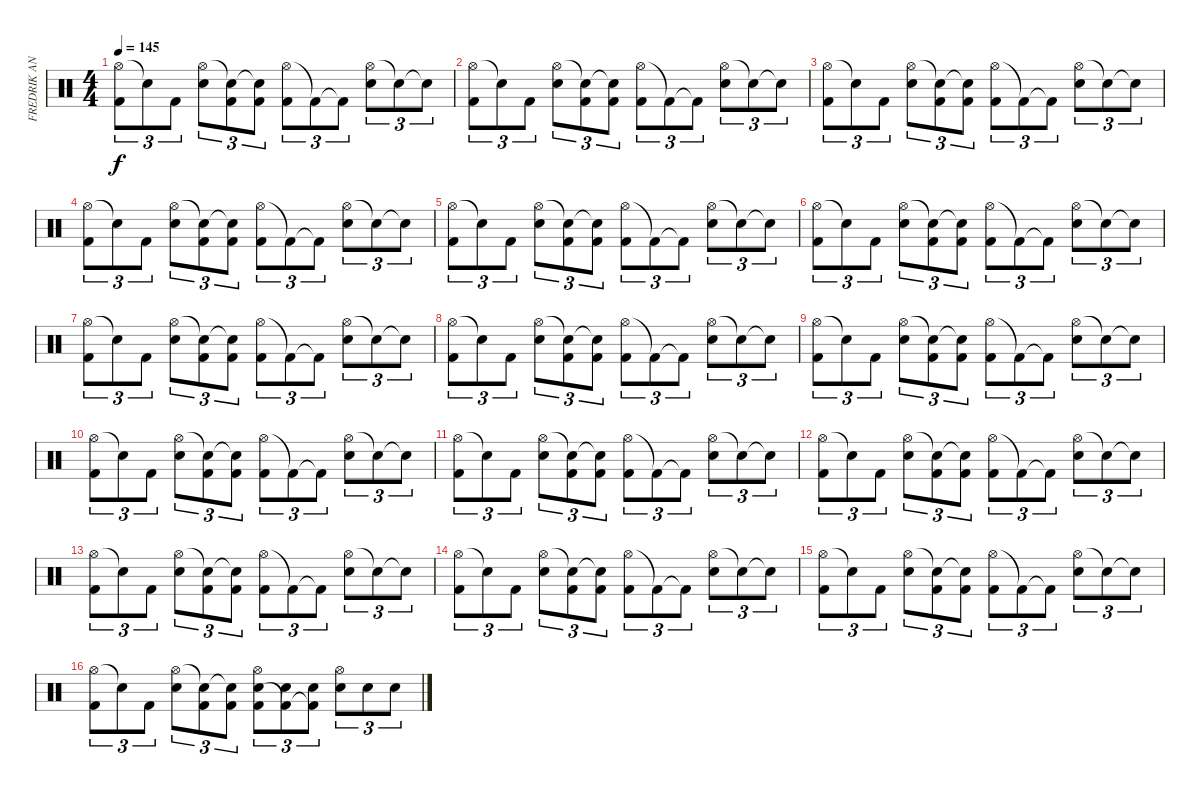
\track ("FREDRIK ANDERSSON" "FREDRIK AN") {instrument percussion}
\staff {score}
\articulation defaults
\ts (4 4)
\tempo 145
\clef neutral
\ks c
("Hi-Hat (open)" "Kick (hit) 2").8{tu (3 2) dy f} "Snare (hit)"{t}.8{tu (3 2)} "Kick (hit) 2".8{tu (3 2)} ("Hi-Hat (open)" "Snare (hit) 2").8{tu (3 2)} ("Snare (hit)"{t} "Kick (hit) 2").8{tu (3 2)} ("Snare (hit)"{t} "Kick (hit) 2").8{tu (3 2)} ("Hi-Hat (open)" "Kick (hit) 2").8{tu (3 2)} "Kick (hit) 2"{t}.8{tu (3 2)} "Kick (hit) 2"{t}.8{tu (3 2)} ("Hi-Hat (open)" "Snare (hit) 2").8{tu (3 2)} "Snare (hit)"{t}.8{tu (3 2)} "Snare (hit)"{t}.8{tu (3 2)} |
("Hi-Hat (open)" "Kick (hit) 2").8{tu (3 2)} "Snare (hit)"{t}.8{tu (3 2)} "Kick (hit) 2".8{tu (3 2)} ("Hi-Hat (open)" "Snare (hit) 2").8{tu (3 2)} ("Snare (hit)"{t} "Kick (hit) 2").8{tu (3 2)} ("Snare (hit)"{t} "Kick (hit) 2").8{tu (3 2)} ("Hi-Hat (open)" "Kick (hit) 2").8{tu (3 2)} "Kick (hit) 2"{t}.8{tu (3 2)} "Kick (hit) 2"{t}.8{tu (3 2)} ("Hi-Hat (open)" "Snare (hit) 2").8{tu (3 2)} "Snare (hit)"{t}.8{tu (3 2)} "Snare (hit)"{t}.8{tu (3 2)} |
("Hi-Hat (open)" "Kick (hit) 2").8{tu (3 2)} "Snare (hit)"{t}.8{tu (3 2)} "Kick (hit) 2".8{tu (3 2)} ("Hi-Hat (open)" "Snare (hit) 2").8{tu (3 2)} ("Snare (hit)"{t} "Kick (hit) 2").8{tu (3 2)} ("Snare (hit)"{t} "Kick (hit) 2").8{tu (3 2)} ("Hi-Hat (open)" "Kick (hit) 2").8{tu (3 2)} "Kick (hit) 2"{t}.8{tu (3 2)} "Kick (hit) 2"{t}.8{tu (3 2)} ("Hi-Hat (open)" "Snare (hit) 2").8{tu (3 2)} "Snare (hit)"{t}.8{tu (3 2)} "Snare (hit)"{t}.8{tu (3 2)} |
("Hi-Hat (open)" "Kick (hit) 2").8{tu (3 2)} "Snare (hit)"{t}.8{tu (3 2)} "Kick (hit) 2".8{tu (3 2)} ("Hi-Hat (open)" "Snare (hit) 2").8{tu (3 2)} ("Snare (hit)"{t} "Kick (hit) 2").8{tu (3 2)} ("Snare (hit)"{t} "Kick (hit) 2").8{tu (3 2)} ("Hi-Hat (open)" "Kick (hit) 2").8{tu (3 2)} "Kick (hit) 2"{t}.8{tu (3 2)} "Kick (hit) 2"{t}.8{tu (3 2)} ("Hi-Hat (open)" "Snare (hit) 2").8{tu (3 2)} "Snare (hit)"{t}.8{tu (3 2)} "Snare (hit)"{t}.8{tu (3 2)} |
("Hi-Hat (open)" "Kick (hit) 2").8{tu (3 2)} "Snare (hit)"{t}.8{tu (3 2)} "Kick (hit) 2".8{tu (3 2)} ("Hi-Hat (open)" "Snare (hit) 2").8{tu (3 2)} ("Snare (hit)"{t} "Kick (hit) 2").8{tu (3 2)} ("Snare (hit)"{t} "Kick (hit) 2").8{tu (3 2)} ("Hi-Hat (open)" "Kick (hit) 2").8{tu (3 2)} "Kick (hit) 2"{t}.8{tu (3 2)} "Kick (hit) 2"{t}.8{tu (3 2)} ("Hi-Hat (open)" "Snare (hit) 2").8{tu (3 2)} "Snare (hit)"{t}.8{tu (3 2)} "Snare (hit)"{t}.8{tu (3 2)} |
("Hi-Hat (open)" "Kick (hit) 2").8{tu (3 2)} "Snare (hit)"{t}.8{tu (3 2)} "Kick (hit) 2".8{tu (3 2)} ("Hi-Hat (open)" "Snare (hit) 2").8{tu (3 2)} ("Snare (hit)"{t} "Kick (hit) 2").8{tu (3 2)} ("Snare (hit)"{t} "Kick (hit) 2").8{tu (3 2)} ("Hi-Hat (open)" "Kick (hit) 2").8{tu (3 2)} "Kick (hit) 2"{t}.8{tu (3 2)} "Kick (hit) 2"{t}.8{tu (3 2)} ("Hi-Hat (open)" "Snare (hit) 2").8{tu (3 2)} "Snare (hit)"{t}.8{tu (3 2)} "Snare (hit)"{t}.8{tu (3 2)} |
("Hi-Hat (open)" "Kick (hit) 2").8{tu (3 2)} "Snare (hit)"{t}.8{tu (3 2)} "Kick (hit) 2".8{tu (3 2)} ("Hi-Hat (open)" "Snare (hit) 2").8{tu (3 2)} ("Snare (hit)"{t} "Kick (hit) 2").8{tu (3 2)} ("Snare (hit)"{t} "Kick (hit) 2").8{tu (3 2)} ("Hi-Hat (open)" "Kick (hit) 2").8{tu (3 2)} "Kick (hit) 2"{t}.8{tu (3 2)} "Kick (hit) 2"{t}.8{tu (3 2)} ("Hi-Hat (open)" "Snare (hit) 2").8{tu (3 2)} "Snare (hit)"{t}.8{tu (3 2)} "Snare (hit)"{t}.8{tu (3 2)} |
("Hi-Hat (open)" "Kick (hit) 2").8{tu (3 2)} "Snare (hit)"{t}.8{tu (3 2)} "Kick (hit) 2".8{tu (3 2)} ("Hi-Hat (open)" "Snare (hit) 2").8{tu (3 2)} ("Snare (hit)"{t} "Kick (hit) 2").8{tu (3 2)} ("Snare (hit)"{t} "Kick (hit) 2").8{tu (3 2)} ("Hi-Hat (open)" "Kick (hit) 2").8{tu (3 2)} "Kick (hit) 2"{t}.8{tu (3 2)} "Kick (hit) 2"{t}.8{tu (3 2)} ("Hi-Hat (open)" "Snare (hit) 2").8{tu (3 2)} "Snare (hit)"{t}.8{tu (3 2)} "Snare (hit)"{t}.8{tu (3 2)} |
("Hi-Hat (open)" "Kick (hit) 2").8{tu (3 2)} "Snare (hit)"{t}.8{tu (3 2)} "Kick (hit) 2".8{tu (3 2)} ("Hi-Hat (open)" "Snare (hit) 2").8{tu (3 2)} ("Snare (hit)"{t} "Kick (hit) 2").8{tu (3 2)} ("Snare (hit)"{t} "Kick (hit) 2").8{tu (3 2)} ("Hi-Hat (open)" "Kick (hit) 2").8{tu (3 2)} "Kick (hit) 2"{t}.8{tu (3 2)} "Kick (hit) 2"{t}.8{tu (3 2)} ("Hi-Hat (open)" "Snare (hit) 2").8{tu (3 2)} "Snare (hit)"{t}.8{tu (3 2)} "Snare (hit)"{t}.8{tu (3 2)} |
("Hi-Hat (open)" "Kick (hit) 2").8{tu (3 2)} "Snare (hit)"{t}.8{tu (3 2)} "Kick (hit) 2".8{tu (3 2)} ("Hi-Hat (open)" "Snare (hit) 2").8{tu (3 2)} ("Snare (hit)"{t} "Kick (hit) 2").8{tu (3 2)} ("Snare (hit)"{t} "Kick (hit) 2").8{tu (3 2)} ("Hi-Hat (open)" "Kick (hit) 2").8{tu (3 2)} "Kick (hit) 2"{t}.8{tu (3 2)} "Kick (hit) 2"{t}.8{tu (3 2)} ("Hi-Hat (open)" "Snare (hit) 2").8{tu (3 2)} "Snare (hit)"{t}.8{tu (3 2)} "Snare (hit)"{t}.8{tu (3 2)} |
("Hi-Hat (open)" "Kick (hit) 2").8{tu (3 2)} "Snare (hit)"{t}.8{tu (3 2)} "Kick (hit) 2".8{tu (3 2)} ("Hi-Hat (open)" "Snare (hit) 2").8{tu (3 2)} ("Snare (hit)"{t} "Kick (hit) 2").8{tu (3 2)} ("Snare (hit)"{t} "Kick (hit) 2").8{tu (3 2)} ("Hi-Hat (open)" "Kick (hit) 2").8{tu (3 2)} "Kick (hit) 2"{t}.8{tu (3 2)} "Kick (hit) 2"{t}.8{tu (3 2)} ("Hi-Hat (open)" "Snare (hit) 2").8{tu (3 2)} "Snare (hit)"{t}.8{tu (3 2)} "Snare (hit)"{t}.8{tu (3 2)} |
("Hi-Hat (open)" "Kick (hit) 2").8{tu (3 2)} "Snare (hit)"{t}.8{tu (3 2)} "Kick (hit) 2".8{tu (3 2)} ("Hi-Hat (open)" "Snare (hit) 2").8{tu (3 2)} ("Snare (hit)"{t} "Kick (hit) 2").8{tu (3 2)} ("Snare (hit)"{t} "Kick (hit) 2").8{tu (3 2)} ("Hi-Hat (open)" "Kick (hit) 2").8{tu (3 2)} "Kick (hit) 2"{t}.8{tu (3 2)} "Kick (hit) 2"{t}.8{tu (3 2)} ("Hi-Hat (open)" "Snare (hit) 2").8{tu (3 2)} "Snare (hit)"{t}.8{tu (3 2)} "Snare (hit)"{t}.8{tu (3 2)} |
("Hi-Hat (open)" "Kick (hit) 2").8{tu (3 2)} "Snare (hit)"{t}.8{tu (3 2)} "Kick (hit) 2".8{tu (3 2)} ("Hi-Hat (open)" "Snare (hit) 2").8{tu (3 2)} ("Snare (hit)"{t} "Kick (hit) 2").8{tu (3 2)} ("Snare (hit)"{t} "Kick (hit) 2").8{tu (3 2)} ("Hi-Hat (open)" "Kick (hit) 2").8{tu (3 2)} "Kick (hit) 2"{t}.8{tu (3 2)} "Kick (hit) 2"{t}.8{tu (3 2)} ("Hi-Hat (open)" "Snare (hit) 2").8{tu (3 2)} "Snare (hit)"{t}.8{tu (3 2)} "Snare (hit)"{t}.8{tu (3 2)} |
("Hi-Hat (open)" "Kick (hit) 2").8{tu (3 2)} "Snare (hit)"{t}.8{tu (3 2)} "Kick (hit) 2".8{tu (3 2)} ("Hi-Hat (open)" "Snare (hit) 2").8{tu (3 2)} ("Snare (hit)"{t} "Kick (hit) 2").8{tu (3 2)} ("Snare (hit)"{t} "Kick (hit) 2").8{tu (3 2)} ("Hi-Hat (open)" "Kick (hit) 2").8{tu (3 2)} "Kick (hit) 2"{t}.8{tu (3 2)} "Kick (hit) 2"{t}.8{tu (3 2)} ("Hi-Hat (open)" "Snare (hit) 2").8{tu (3 2)} "Snare (hit)"{t}.8{tu (3 2)} "Snare (hit)"{t}.8{tu (3 2)} |
("Hi-Hat (open)" "Kick (hit) 2").8{tu (3 2)} "Snare (hit)"{t}.8{tu (3 2)} "Kick (hit) 2".8{tu (3 2)} ("Hi-Hat (open)" "Snare (hit) 2").8{tu (3 2)} ("Snare (hit)"{t} "Kick (hit) 2").8{tu (3 2)} ("Snare (hit)"{t} "Kick (hit) 2").8{tu (3 2)} ("Hi-Hat (open)" "Kick (hit) 2").8{tu (3 2)} "Kick (hit) 2"{t}.8{tu (3 2)} "Kick (hit) 2"{t}.8{tu (3 2)} ("Hi-Hat (open)" "Snare (hit) 2").8{tu (3 2)} "Snare (hit)"{t}.8{tu (3 2)} "Snare (hit)"{t}.8{tu (3 2)} |
("Hi-Hat (open)" "Kick (hit) 2").8{tu (3 2)} "Snare (hit)"{t}.8{tu (3 2)} "Kick (hit) 2".8{tu (3 2)} ("Hi-Hat (open)" "Snare (hit) 2").8{tu (3 2)} ("Snare (hit)"{t} "Kick (hit) 2").8{tu (3 2)} ("Snare (hit)"{t} "Kick (hit) 2").8{tu (3 2)} ("Hi-Hat (open)" "Snare (hit) 2" "Kick (hit) 2").8{tu (3 2)} ("Snare (hit) 2" "Kick (hit) 2"{t}).8{tu (3 2)} ("Snare (hit) 2" "Kick (hit) 2"{t}).8{tu (3 2)} ("Hi-Hat (open)" "Snare (hit) 2").8{tu (3 2)} "Snare (hit) 2".8{tu (3 2)} "Snare (hit) 2".8{tu (3 2)}
